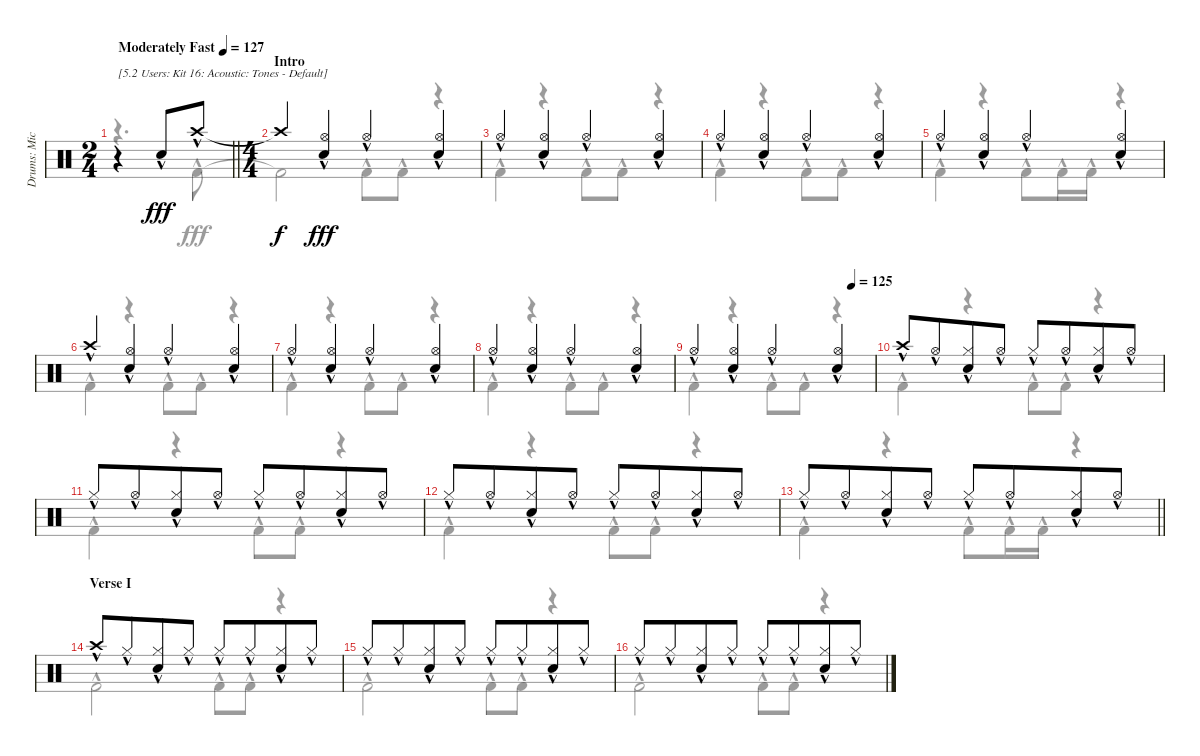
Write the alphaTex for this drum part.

\track ("Drums: Mick" "Drums: Mic") {instrument percussion}
\staff {score}
\articulation defaults
\voice
\ts (2 4)
\tempo (127 "Moderately Fast")
\clef neutral
\barLineRight lightlight
\ks c
r.4{txt "[5.2 Users: Kit 16: Acoustic: Tones - Default]" dy fff} "Snare (hit) 2"{hac}.8 "Crash high (hit)"{hac}.8 |
\ts (4 4)
\section ("" "Intro")
"Crash high (hit)"{t}.4{dy f} ("Hi-Hat (open)"{hac} "Snare (hit) 2"{hac}).4{dy fff} "Hi-Hat (open)"{hac}.4 ("Hi-Hat (open)"{hac} "Snare (hit) 2"{hac}).4 |
"Hi-Hat (open)"{hac}.4 ("Hi-Hat (open)"{hac} "Snare (hit) 2"{hac}).4 "Hi-Hat (open)"{hac}.4 ("Hi-Hat (open)"{hac} "Snare (hit) 2"{hac}).4 |
"Hi-Hat (open)"{hac}.4 ("Hi-Hat (open)"{hac} "Snare (hit) 2"{hac}).4 "Hi-Hat (open)"{hac}.4 ("Hi-Hat (open)"{hac} "Snare (hit) 2"{hac}).4 |
"Hi-Hat (open)"{hac}.4 ("Hi-Hat (open)"{hac} "Snare (hit) 2"{hac}).4 "Hi-Hat (open)"{hac}.4 ("Hi-Hat (open)"{hac} "Snare (hit) 2"{hac}).4 |
"Crash high (hit)"{hac}.4 ("Hi-Hat (open)"{hac} "Snare (hit) 2"{hac}).4 "Hi-Hat (open)"{hac}.4 ("Hi-Hat (open)"{hac} "Snare (hit) 2"{hac}).4 |
"Hi-Hat (open)"{hac}.4 ("Hi-Hat (open)"{hac} "Snare (hit) 2"{hac}).4 "Hi-Hat (open)"{hac}.4 ("Hi-Hat (open)"{hac} "Snare (hit) 2"{hac}).4 |
"Hi-Hat (open)"{hac}.4 ("Hi-Hat (open)"{hac} "Snare (hit) 2"{hac}).4 "Hi-Hat (open)"{hac}.4 ("Hi-Hat (open)"{hac} "Snare (hit) 2"{hac}).4 |
\tempo (125 0.875)
"Hi-Hat (open)"{hac}.4 ("Hi-Hat (open)"{hac} "Snare (hit) 2"{hac}).4 "Hi-Hat (open)"{hac}.4 ("Hi-Hat (open)"{hac} "Snare (hit) 2"{hac}).4 |
"Crash high (hit)"{hac}.8 "Hi-Hat (open)"{hac}.8{beam merge} ("Hi-Hat (closed)"{hac} "Snare (hit) 2"{hac}).8 "Hi-Hat (open)"{hac}.8 "Hi-Hat (closed)"{hac}.8 "Hi-Hat (open)"{hac}.8{beam merge} ("Hi-Hat (closed)"{hac} "Snare (hit) 2"{hac}).8 "Hi-Hat (open)"{hac}.8 |
"Hi-Hat (closed)"{hac}.8 "Hi-Hat (open)"{hac}.8{beam merge} ("Hi-Hat (closed)"{hac} "Snare (hit) 2"{hac}).8 "Hi-Hat (open)"{hac}.8 "Hi-Hat (closed)"{hac}.8 "Hi-Hat (open)"{hac}.8{beam merge} ("Hi-Hat (closed)"{hac} "Snare (hit) 2"{hac}).8 "Hi-Hat (open)"{hac}.8 |
"Hi-Hat (closed)"{hac}.8 "Hi-Hat (open)"{hac}.8{beam merge} ("Hi-Hat (closed)"{hac} "Snare (hit) 2"{hac}).8 "Hi-Hat (open)"{hac}.8 "Hi-Hat (closed)"{hac}.8 "Hi-Hat (open)"{hac}.8{beam merge} ("Hi-Hat (closed)"{hac} "Snare (hit) 2"{hac}).8 "Hi-Hat (open)"{hac}.8 |
\barLineRight lightlight "Hi-Hat (closed)"{hac}.8 "Hi-Hat (open)"{hac}.8{beam merge}
("Hi-Hat (closed)"{hac} "Snare (hit) 2"{hac}).8 "Hi-Hat (open)"{hac}.8 "Hi-Hat (closed)"{hac}.8 "Hi-Hat (open)"{hac}.8{beam merge} ("Hi-Hat (closed)"{hac} "Snare (hit) 2"{hac}).8 "Hi-Hat (open)"{hac}.8 |
\section ("" "Verse I")
"Crash high (hit)"{hac}.8 "Hi-Hat (closed)"{hac}.8{beam merge} ("Hi-Hat (closed)"{hac} "Snare (hit) 2"{hac}).8 "Hi-Hat (closed)"{hac}.8 "Hi-Hat (closed)"{hac}.8 "Hi-Hat (closed)"{hac}.8{beam merge} ("Hi-Hat (closed)"{hac} "Snare (hit) 2"{hac}).8 "Hi-Hat (closed)"{hac}.8 |
"Hi-Hat (closed)"{hac}.8 "Hi-Hat (closed)"{hac}.8{beam merge} ("Hi-Hat (closed)"{hac} "Snare (hit) 2"{hac}).8 "Hi-Hat (closed)"{hac}.8 "Hi-Hat (closed)"{hac}.8 "Hi-Hat (closed)"{hac}.8{beam merge} ("Hi-Hat (closed)"{hac} "Snare (hit) 2"{hac}).8 "Hi-Hat (closed)"{hac}.8 |
"Hi-Hat (closed)"{hac}.8 "Hi-Hat (closed)"{hac}.8{beam merge} ("Hi-Hat (closed)"{hac} "Snare (hit) 2"{hac}).8 "Hi-Hat (closed)"{hac}.8 "Hi-Hat (closed)"{hac}.8 "Hi-Hat (closed)"{hac}.8{beam merge} ("Hi-Hat (closed)"{hac} "Snare (hit) 2"{hac}).8 "Hi-Hat (closed)"{hac}.8
\voice
\clef neutral
\ottava regular
\simile none
\barLineRight lightlight
\ks c
r.4{d dy fff} "Kick (hit) 2"{hac}.8 |
"Kick (hit) 2"{t}.2 "Kick (hit) 2"{hac}.8 "Kick (hit) 2"{hac}.8 r.4 |
"Kick (hit) 2"{hac}.4 r.4 "Kick (hit) 2"{hac}.8 "Kick (hit) 2"{hac}.8 r.4 |
"Kick (hit) 2"{hac}.4 r.4 "Kick (hit) 2"{hac}.8 "Kick (hit) 2"{hac}.8 r.4 |
"Kick (hit) 2"{hac}.4 r.4 "Kick (hit) 2"{hac}.8 "Kick (hit) 2"{hac}.16 "Kick (hit) 2"{hac}.16 r.4 |
"Kick (hit) 2"{hac}.4 r.4 "Kick (hit) 2"{hac}.8 "Kick (hit) 2"{hac}.8 r.4 |
"Kick (hit) 2"{hac}.4 r.4 "Kick (hit) 2"{hac}.8 "Kick (hit) 2"{hac}.8 r.4 |
"Kick (hit) 2"{hac}.4 r.4 "Kick (hit) 2"{hac}.8 "Kick (hit) 2"{hac}.8 r.4 |
"Kick (hit) 2"{hac}.4 r.4 "Kick (hit) 2"{hac}.8 "Kick (hit) 2"{hac}.8 r.4 |
"Kick (hit) 2"{hac}.4 r.4 "Kick (hit) 2"{hac}.8 "Kick (hit) 2"{hac}.8 r.4 |
"Kick (hit) 2"{hac}.4 r.4 "Kick (hit) 2"{hac}.8 "Kick (hit) 2"{hac}.8 r.4 |
"Kick (hit) 2"{hac}.4 r.4 "Kick (hit) 2"{hac}.8 "Kick (hit) 2"{hac}.8 r.4 |
\barLineRight lightlight "Kick (hit) 2"{hac}.4
r.4 "Kick (hit) 2"{hac}.8 "Kick (hit) 2"{hac}.16 "Kick (hit) 2"{hac}.16 r.4 |
"Kick (hit) 2"{hac}.2 "Kick (hit) 2"{hac}.8 "Kick (hit) 2"{hac}.8 r.4 |
"Kick (hit) 2"{hac}.2 "Kick (hit) 2"{hac}.8 "Kick (hit) 2"{hac}.8 r.4 |
"Kick (hit) 2"{hac}.2 "Kick (hit) 2"{hac}.8 "Kick (hit) 2"{hac}.8 r.4
